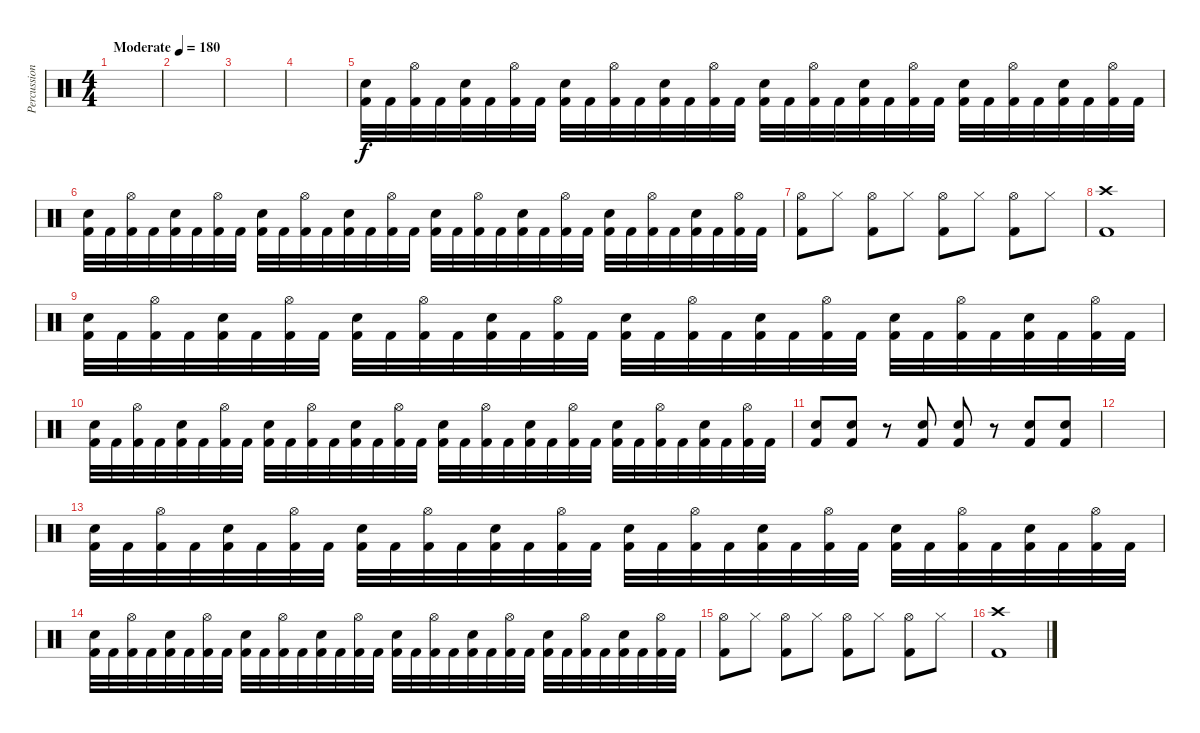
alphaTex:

\track ("Percussion" "Percussion") {instrument percussion}
\staff {score}
\articulation defaults
\ts (4 4)
\tempo (180 "Moderate")
\clef neutral
\ks c
|
|
|
|
("Snare (hit) 2" "Kick (hit) 2").32 "Kick (hit) 2".32 ("Hi-Hat (open)" "Kick (hit) 2").32 "Kick (hit) 2".32 ("Snare (hit) 2" "Kick (hit) 2").32 "Kick (hit) 2".32 ("Hi-Hat (open)" "Kick (hit) 2").32 "Kick (hit) 2".32 ("Snare (hit) 2" "Kick (hit) 2").32 "Kick (hit) 2".32 ("Hi-Hat (open)" "Kick (hit) 2").32 "Kick (hit) 2".32 ("Snare (hit) 2" "Kick (hit) 2").32 "Kick (hit) 2".32 ("Hi-Hat (open)" "Kick (hit) 2").32 "Kick (hit) 2".32 ("Snare (hit) 2" "Kick (hit) 2").32 "Kick (hit) 2".32 ("Hi-Hat (open)" "Kick (hit) 2").32 "Kick (hit) 2".32 ("Snare (hit) 2" "Kick (hit) 2").32 "Kick (hit) 2".32 ("Hi-Hat (open)" "Kick (hit) 2").32 "Kick (hit) 2".32 ("Snare (hit) 2" "Kick (hit) 2").32 "Kick (hit) 2".32 ("Hi-Hat (open)" "Kick (hit) 2").32 "Kick (hit) 2".32 ("Snare (hit) 2" "Kick (hit) 2").32 "Kick (hit) 2".32 ("Hi-Hat (open)" "Kick (hit) 2").32 "Kick (hit) 2".32 |
("Snare (hit) 2" "Kick (hit) 2").32 "Kick (hit) 2".32 ("Hi-Hat (open)" "Kick (hit) 2").32 "Kick (hit) 2".32 ("Snare (hit) 2" "Kick (hit) 2").32 "Kick (hit) 2".32 ("Hi-Hat (open)" "Kick (hit) 2").32 "Kick (hit) 2".32 ("Snare (hit) 2" "Kick (hit) 2").32 "Kick (hit) 2".32 ("Hi-Hat (open)" "Kick (hit) 2").32 "Kick (hit) 2".32 ("Snare (hit) 2" "Kick (hit) 2").32 "Kick (hit) 2".32 ("Hi-Hat (open)" "Kick (hit) 2").32 "Kick (hit) 2".32 ("Snare (hit) 2" "Kick (hit) 2").32 "Kick (hit) 2".32 ("Hi-Hat (open)" "Kick (hit) 2").32 "Kick (hit) 2".32 ("Snare (hit) 2" "Kick (hit) 2").32 "Kick (hit) 2".32 ("Hi-Hat (open)" "Kick (hit) 2").32 "Kick (hit) 2".32 ("Snare (hit) 2" "Kick (hit) 2").32 "Kick (hit) 2".32 ("Hi-Hat (open)" "Kick (hit) 2").32 "Kick (hit) 2".32 ("Snare (hit) 2" "Kick (hit) 2").32 "Kick (hit) 2".32 ("Hi-Hat (open)" "Kick (hit) 2").32 "Kick (hit) 2".32 |
("Hi-Hat (open)" "Kick (hit) 2").8 "Hi-Hat (closed)".8 ("Hi-Hat (open)" "Kick (hit) 2").8 "Hi-Hat (closed)".8 ("Hi-Hat (open)" "Kick (hit) 2").8 "Hi-Hat (closed)".8 ("Hi-Hat (open)" "Kick (hit) 2").8 "Hi-Hat (closed)".8 |
("Crash high (hit)" "Kick (hit) 2").1 |
("Snare (hit) 2" "Kick (hit) 2").32 "Kick (hit) 2".32 ("Hi-Hat (open)" "Kick (hit) 2").32 "Kick (hit) 2".32 ("Snare (hit) 2" "Kick (hit) 2").32 "Kick (hit) 2".32 ("Hi-Hat (open)" "Kick (hit) 2").32 "Kick (hit) 2".32 ("Snare (hit) 2" "Kick (hit) 2").32 "Kick (hit) 2".32 ("Hi-Hat (open)" "Kick (hit) 2").32 "Kick (hit) 2".32 ("Snare (hit) 2" "Kick (hit) 2").32 "Kick (hit) 2".32 ("Hi-Hat (open)" "Kick (hit) 2").32 "Kick (hit) 2".32 ("Snare (hit) 2" "Kick (hit) 2").32 "Kick (hit) 2".32 ("Hi-Hat (open)" "Kick (hit) 2").32 "Kick (hit) 2".32 ("Snare (hit) 2" "Kick (hit) 2").32 "Kick (hit) 2".32 ("Hi-Hat (open)" "Kick (hit) 2").32 "Kick (hit) 2".32 ("Snare (hit) 2" "Kick (hit) 2").32 "Kick (hit) 2".32 ("Hi-Hat (open)" "Kick (hit) 2").32 "Kick (hit) 2".32 ("Snare (hit) 2" "Kick (hit) 2").32 "Kick (hit) 2".32 ("Hi-Hat (open)" "Kick (hit) 2").32 "Kick (hit) 2".32 |
("Snare (hit) 2" "Kick (hit) 2").32 "Kick (hit) 2".32 ("Hi-Hat (open)" "Kick (hit) 2").32 "Kick (hit) 2".32 ("Snare (hit) 2" "Kick (hit) 2").32 "Kick (hit) 2".32 ("Hi-Hat (open)" "Kick (hit) 2").32 "Kick (hit) 2".32 ("Snare (hit) 2" "Kick (hit) 2").32 "Kick (hit) 2".32 ("Hi-Hat (open)" "Kick (hit) 2").32 "Kick (hit) 2".32 ("Snare (hit) 2" "Kick (hit) 2").32 "Kick (hit) 2".32 ("Hi-Hat (open)" "Kick (hit) 2").32 "Kick (hit) 2".32 ("Snare (hit) 2" "Kick (hit) 2").32 "Kick (hit) 2".32 ("Hi-Hat (open)" "Kick (hit) 2").32 "Kick (hit) 2".32 ("Snare (hit) 2" "Kick (hit) 2").32 "Kick (hit) 2".32 ("Hi-Hat (open)" "Kick (hit) 2").32 "Kick (hit) 2".32 ("Snare (hit) 2" "Kick (hit) 2").32 "Kick (hit) 2".32 ("Hi-Hat (open)" "Kick (hit) 2").32 "Kick (hit) 2".32 ("Snare (hit) 2" "Kick (hit) 2").32 "Kick (hit) 2".32 ("Hi-Hat (open)" "Kick (hit) 2").32 "Kick (hit) 2".32 |
("Snare (hit) 2" "Kick (hit) 2").8 ("Snare (hit) 2" "Kick (hit) 2").8 r.8 ("Snare (hit) 2" "Kick (hit) 2").8 ("Snare (hit) 2" "Kick (hit) 2").8 r.8 ("Snare (hit) 2" "Kick (hit) 2").8 ("Snare (hit) 2" "Kick (hit) 2").8 |
|
("Snare (hit) 2" "Kick (hit) 2").32 "Kick (hit) 2".32 ("Hi-Hat (open)" "Kick (hit) 2").32 "Kick (hit) 2".32 ("Snare (hit) 2" "Kick (hit) 2").32 "Kick (hit) 2".32 ("Hi-Hat (open)" "Kick (hit) 2").32 "Kick (hit) 2".32 ("Snare (hit) 2" "Kick (hit) 2").32 "Kick (hit) 2".32 ("Hi-Hat (open)" "Kick (hit) 2").32 "Kick (hit) 2".32 ("Snare (hit) 2" "Kick (hit) 2").32 "Kick (hit) 2".32 ("Hi-Hat (open)" "Kick (hit) 2").32 "Kick (hit) 2".32 ("Snare (hit) 2" "Kick (hit) 2").32 "Kick (hit) 2".32 ("Hi-Hat (open)" "Kick (hit) 2").32 "Kick (hit) 2".32 ("Snare (hit) 2" "Kick (hit) 2").32 "Kick (hit) 2".32 ("Hi-Hat (open)" "Kick (hit) 2").32 "Kick (hit) 2".32 ("Snare (hit) 2" "Kick (hit) 2").32 "Kick (hit) 2".32 ("Hi-Hat (open)" "Kick (hit) 2").32 "Kick (hit) 2".32 ("Snare (hit) 2" "Kick (hit) 2").32 "Kick (hit) 2".32 ("Hi-Hat (open)" "Kick (hit) 2").32 "Kick (hit) 2".32 |
("Snare (hit) 2" "Kick (hit) 2").32 "Kick (hit) 2".32 ("Hi-Hat (open)" "Kick (hit) 2").32 "Kick (hit) 2".32 ("Snare (hit) 2" "Kick (hit) 2").32 "Kick (hit) 2".32 ("Hi-Hat (open)" "Kick (hit) 2").32 "Kick (hit) 2".32 ("Snare (hit) 2" "Kick (hit) 2").32 "Kick (hit) 2".32 ("Hi-Hat (open)" "Kick (hit) 2").32 "Kick (hit) 2".32 ("Snare (hit) 2" "Kick (hit) 2").32 "Kick (hit) 2".32 ("Hi-Hat (open)" "Kick (hit) 2").32 "Kick (hit) 2".32 ("Snare (hit) 2" "Kick (hit) 2").32 "Kick (hit) 2".32 ("Hi-Hat (open)" "Kick (hit) 2").32 "Kick (hit) 2".32 ("Snare (hit) 2" "Kick (hit) 2").32 "Kick (hit) 2".32 ("Hi-Hat (open)" "Kick (hit) 2").32 "Kick (hit) 2".32 ("Snare (hit) 2" "Kick (hit) 2").32 "Kick (hit) 2".32 ("Hi-Hat (open)" "Kick (hit) 2").32 "Kick (hit) 2".32 ("Snare (hit) 2" "Kick (hit) 2").32 "Kick (hit) 2".32 ("Hi-Hat (open)" "Kick (hit) 2").32 "Kick (hit) 2".32 |
("Hi-Hat (open)" "Kick (hit) 2").8 "Hi-Hat (closed)".8 ("Hi-Hat (open)" "Kick (hit) 2").8 "Hi-Hat (closed)".8 ("Hi-Hat (open)" "Kick (hit) 2").8 "Hi-Hat (closed)".8 ("Hi-Hat (open)" "Kick (hit) 2").8 "Hi-Hat (closed)".8 |
("Crash high (hit)" "Kick (hit) 2").1
